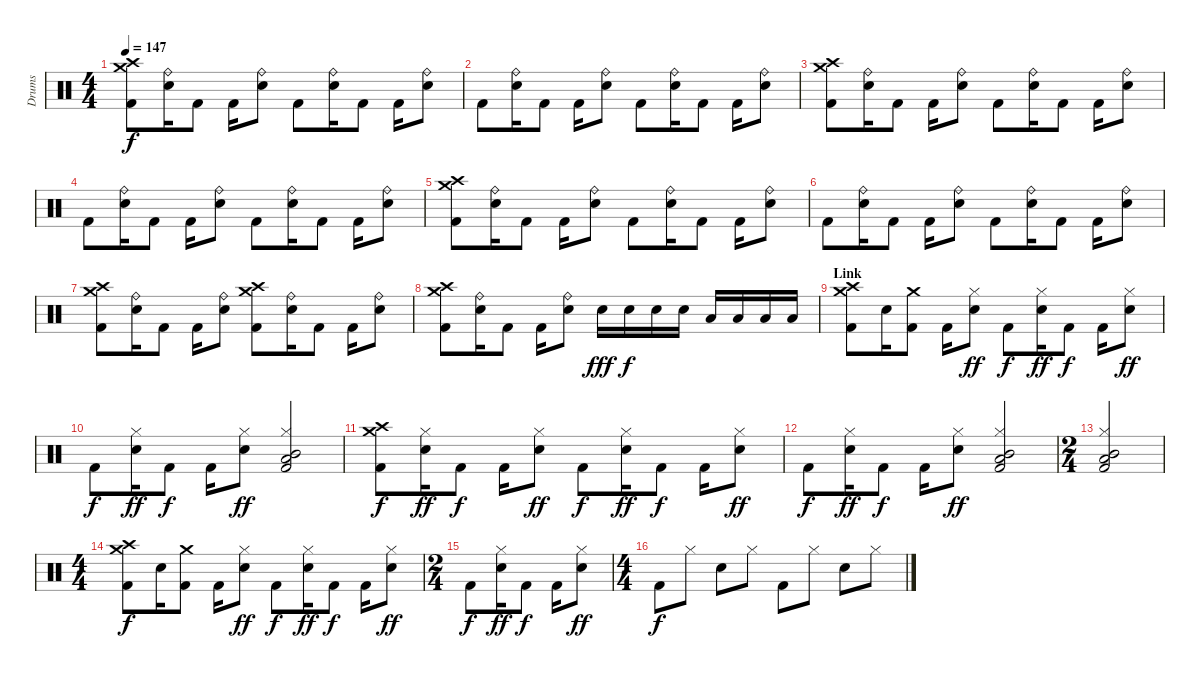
\track ("Drums" "Drums") {instrument percussion}
\staff {score}
\articulation defaults
\ts (4 4)
\tempo 147
\clef neutral
\ks c
("Crash high (hit)" "Crash medium (hit)" "Kick (hit) 2").8{dy f} ("Ride (bell)" "Electric Snare (hit)").16 "Kick (hit) 2".8 "Kick (hit) 2".16 ("Ride (bell)" "Electric Snare (hit)").8 "Kick (hit) 2".8 ("Ride (bell)" "Electric Snare (hit)").16 "Kick (hit) 2".8 "Kick (hit) 2".16 ("Ride (bell)" "Electric Snare (hit)").8 |
"Kick (hit) 2".8 ("Ride (bell)" "Electric Snare (hit)").16 "Kick (hit) 2".8 "Kick (hit) 2".16 ("Ride (bell)" "Electric Snare (hit)").8 "Kick (hit) 2".8 ("Ride (bell)" "Electric Snare (hit)").16 "Kick (hit) 2".8 "Kick (hit) 2".16 ("Ride (bell)" "Electric Snare (hit)").8 |
("Crash high (hit)" "Crash medium (hit)" "Kick (hit) 2").8 ("Ride (bell)" "Electric Snare (hit)").16 "Kick (hit) 2".8 "Kick (hit) 2".16 ("Ride (bell)" "Electric Snare (hit)").8 "Kick (hit) 2".8 ("Ride (bell)" "Electric Snare (hit)").16 "Kick (hit) 2".8 "Kick (hit) 2".16 ("Ride (bell)" "Electric Snare (hit)").8 |
"Kick (hit) 2".8 ("Ride (bell)" "Electric Snare (hit)").16 "Kick (hit) 2".8 "Kick (hit) 2".16 ("Ride (bell)" "Electric Snare (hit)").8 "Kick (hit) 2".8 ("Ride (bell)" "Electric Snare (hit)").16 "Kick (hit) 2".8 "Kick (hit) 2".16 ("Ride (bell)" "Electric Snare (hit)").8 |
("Crash high (hit)" "Crash medium (hit)" "Kick (hit) 2").8 ("Ride (bell)" "Electric Snare (hit)").16 "Kick (hit) 2".8 "Kick (hit) 2".16 ("Ride (bell)" "Electric Snare (hit)").8 "Kick (hit) 2".8 ("Ride (bell)" "Electric Snare (hit)").16 "Kick (hit) 2".8 "Kick (hit) 2".16 ("Ride (bell)" "Electric Snare (hit)").8 |
"Kick (hit) 2".8 ("Ride (bell)" "Electric Snare (hit)").16 "Kick (hit) 2".8 "Kick (hit) 2".16 ("Ride (bell)" "Electric Snare (hit)").8 "Kick (hit) 2".8 ("Ride (bell)" "Electric Snare (hit)").16 "Kick (hit) 2".8 "Kick (hit) 2".16 ("Ride (bell)" "Electric Snare (hit)").8 |
("Crash high (hit)" "Crash medium (hit)" "Kick (hit) 2").8 ("Ride (bell)" "Electric Snare (hit)").16 "Kick (hit) 2".8 "Kick (hit) 2".16 ("Ride (bell)" "Electric Snare (hit)").8 ("Crash high (hit)" "Crash medium (hit)" "Kick (hit) 2").8 ("Ride (bell)" "Electric Snare (hit)").16 "Kick (hit) 2".8 "Kick (hit) 2".16 ("Ride (bell)" "Electric Snare (hit)").8 |
("Crash high (hit)" "Crash medium (hit)" "Kick (hit) 2").8 ("Ride (bell)" "Electric Snare (hit)").16 "Kick (hit) 2".8 "Kick (hit) 2".16 ("Ride (bell)" "Electric Snare (hit)").8 "Electric Snare (hit)".16{dy fff} "Electric Snare (hit)".16{dy f} "Electric Snare (hit)".16 "Electric Snare (hit)".16 "Low Tom (hit)".16 "Low Tom (hit)".16 "Low Tom (hit)".16 "Low Tom (hit)".16 |
\section ("" "Link")
("Crash high (hit)" "Crash medium (hit)" "Kick (hit) 2").8 "Electric Snare (hit)".16 ("Crash medium (hit)" "Kick (hit) 2").8 "Kick (hit) 2".16 ("Hi-Hat (closed)" "Electric Snare (hit)").8{dy ff} "Kick (hit) 2".8{dy f} ("Hi-Hat (closed)" "Electric Snare (hit)").16{dy ff} "Kick (hit) 2".8{dy f} "Kick (hit) 2".16 ("Hi-Hat (closed)" "Electric Snare (hit)").8{dy ff} |
"Kick (hit) 2".8{dy f} ("Hi-Hat (closed)" "Electric Snare (hit)").16{dy ff} "Kick (hit) 2".8{dy f} "Kick (hit) 2".16 ("Hi-Hat (closed)" "Electric Snare (hit)").8{dy ff} ("Hi-Hat (closed)" "Low Floor Tom (hit)" "Mid Tom (hit)" "Kick (hit) 2").2 |
("Crash high (hit)" "Crash medium (hit)" "Kick (hit) 2").8{dy f} ("Hi-Hat (closed)" "Electric Snare (hit)").16{dy ff} "Kick (hit) 2".8{dy f} "Kick (hit) 2".16 ("Hi-Hat (closed)" "Electric Snare (hit)").8{dy ff} "Kick (hit) 2".8{dy f} ("Hi-Hat (closed)" "Electric Snare (hit)").16{dy ff} "Kick (hit) 2".8{dy f} "Kick (hit) 2".16 ("Hi-Hat (closed)" "Electric Snare (hit)").8{dy ff} |
"Kick (hit) 2".8{dy f} ("Hi-Hat (closed)" "Electric Snare (hit)").16{dy ff} "Kick (hit) 2".8{dy f} "Kick (hit) 2".16 ("Hi-Hat (closed)" "Electric Snare (hit)").8{dy ff} ("Hi-Hat (closed)" "Low Floor Tom (hit)" "Mid Tom (hit)" "Kick (hit) 2").2 |
\ts (2 4)
("Hi-Hat (closed)" "Mid Tom (hit)" "Low Floor Tom (hit)" "Kick (hit) 2").2 |
\ts (4 4)
("Crash high (hit)" "Crash medium (hit)" "Kick (hit) 2").8{dy f} "Electric Snare (hit)".16 ("Crash medium (hit)" "Kick (hit) 2").8 "Kick (hit) 2".16 ("Hi-Hat (closed)" "Electric Snare (hit)").8{dy ff} "Kick (hit) 2".8{dy f} ("Hi-Hat (closed)" "Electric Snare (hit)").16{dy ff} "Kick (hit) 2".8{dy f} "Kick (hit) 2".16 ("Hi-Hat (closed)" "Electric Snare (hit)").8{dy ff} |
\ts (2 4)
"Kick (hit) 2".8{dy f} ("Hi-Hat (closed)" "Electric Snare (hit)").16{dy ff} "Kick (hit) 2".8{dy f} "Kick (hit) 2".16 ("Hi-Hat (closed)" "Electric Snare (hit)").8{dy ff} |
\ts (4 4)
"Kick (hit) 2".8{dy f} "Hi-Hat (closed)".8 "Electric Snare (hit)".8 "Hi-Hat (closed)".8 "Kick (hit) 2".8 "Hi-Hat (closed)".8 "Electric Snare (hit)".8 "Hi-Hat (closed)".8
